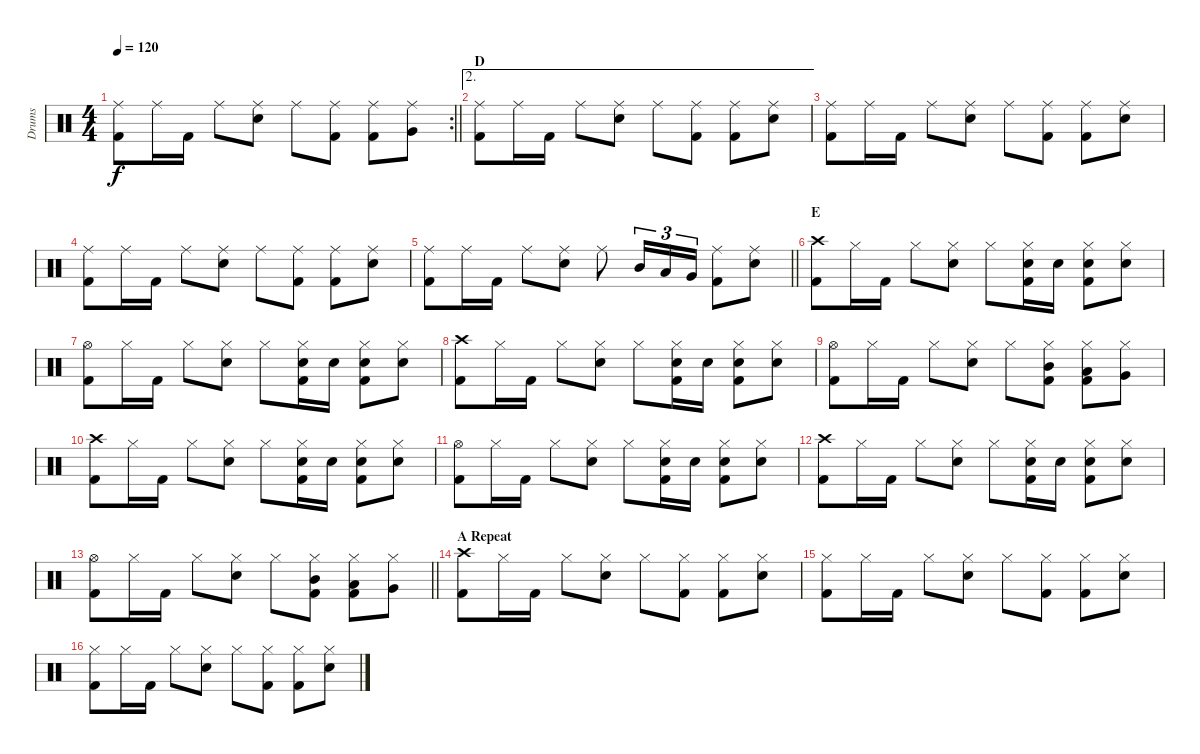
\track ("Drums" "Drums") {instrument percussion}
\staff {score}
\articulation defaults
\rc 2
\ts (4 4)
\tempo 120
\clef neutral
\barLineRight lightlight
\ks c
("Ride (middle)" "Kick (hit) 2").8{dy f} "Ride (middle)".16 "Kick (hit) 2".16 "Ride (middle)".8 ("Ride (middle)" "Snare (hit) 2").8 "Ride (middle)".8 ("Ride (middle)" "Kick (hit) 2").8 ("Ride (middle)" "Kick (hit) 2").8 ("Ride (middle)" "Very Low Tom (hit)").8 |
\ae 2
\section ("" "D")
("Ride (middle)" "Kick (hit) 2").8 "Ride (middle)".16 "Kick (hit) 2".16 "Ride (middle)".8 ("Ride (middle)" "Snare (hit) 2").8 "Ride (middle)".8 ("Ride (middle)" "Kick (hit) 2").8 ("Ride (middle)" "Kick (hit) 2").8 ("Ride (middle)" "Snare (hit) 2").8 |
("Ride (middle)" "Kick (hit) 2").8 "Ride (middle)".16 "Kick (hit) 2".16 "Ride (middle)".8 ("Ride (middle)" "Snare (hit) 2").8 "Ride (middle)".8 ("Ride (middle)" "Kick (hit) 2").8 ("Ride (middle)" "Kick (hit) 2").8 ("Ride (middle)" "Snare (hit) 2").8 |
("Ride (middle)" "Kick (hit) 2").8 "Ride (middle)".16 "Kick (hit) 2".16 "Ride (middle)".8 ("Ride (middle)" "Snare (hit) 2").8 "Ride (middle)".8 ("Ride (middle)" "Kick (hit) 2").8 ("Ride (middle)" "Kick (hit) 2").8 ("Ride (middle)" "Snare (hit) 2").8 |
\barLineRight lightlight
("Ride (middle)" "Kick (hit) 2").8 "Ride (middle)".16 "Kick (hit) 2".16 "Ride (middle)".8 ("Ride (middle)" "Snare (hit) 2").8 "Ride (middle)".8 "Mid Tom (hit)".16{tu (3 2)} "Low Tom (hit)".16{tu (3 2)} "Very Low Tom (hit)".16{tu (3 2)} ("Ride (middle)" "Kick (hit) 2").8 ("Ride (middle)" "Snare (hit) 2").8 |
\section ("" "E")
("Crash high (hit)" "Kick (hit) 2").8 "Hi-Hat (closed)".16 "Kick (hit) 2".16 "Hi-Hat (closed)".8 ("Hi-Hat (closed)" "Snare (hit) 2").8 "Hi-Hat (closed)".8 ("Hi-Hat (closed)" "Snare (hit) 2" "Kick (hit) 2").16 "Snare (hit) 2".16 ("Hi-Hat (closed)" "Snare (hit) 2" "Kick (hit) 2").8 ("Hi-Hat (closed)" "Snare (hit) 2").8 |
("Hi-Hat (open)" "Kick (hit) 2").8 "Hi-Hat (closed)".16 "Kick (hit) 2".16 "Hi-Hat (closed)".8 ("Hi-Hat (closed)" "Snare (hit) 2").8 "Hi-Hat (closed)".8 ("Hi-Hat (closed)" "Snare (hit) 2" "Kick (hit) 2").16 "Snare (hit) 2".16 ("Hi-Hat (closed)" "Snare (hit) 2" "Kick (hit) 2").8 ("Hi-Hat (closed)" "Snare (hit) 2").8 |
("Crash high (hit)" "Kick (hit) 2").8 "Hi-Hat (closed)".16 "Kick (hit) 2".16 "Hi-Hat (closed)".8 ("Hi-Hat (closed)" "Snare (hit) 2").8 "Hi-Hat (closed)".8 ("Hi-Hat (closed)" "Snare (hit) 2" "Kick (hit) 2").16 "Snare (hit) 2".16 ("Hi-Hat (closed)" "Snare (hit) 2" "Kick (hit) 2").8 ("Hi-Hat (closed)" "Snare (hit) 2").8 |
("Hi-Hat (open)" "Kick (hit) 2").8 "Hi-Hat (closed)".16 "Kick (hit) 2".16 "Hi-Hat (closed)".8 ("Hi-Hat (closed)" "Snare (hit) 2").8 "Hi-Hat (closed)".8 ("Hi-Hat (closed)" "Mid Tom (hit)" "Kick (hit) 2").8 ("Hi-Hat (closed)" "Low Tom (hit)" "Kick (hit) 2").8 ("Hi-Hat (closed)" "Very Low Tom (hit)").8 |
("Crash high (hit)" "Kick (hit) 2").8 "Hi-Hat (closed)".16 "Kick (hit) 2".16 "Hi-Hat (closed)".8 ("Hi-Hat (closed)" "Snare (hit) 2").8 "Hi-Hat (closed)".8 ("Hi-Hat (closed)" "Snare (hit) 2" "Kick (hit) 2").16 "Snare (hit) 2".16 ("Hi-Hat (closed)" "Snare (hit) 2" "Kick (hit) 2").8 ("Hi-Hat (closed)" "Snare (hit) 2").8 |
("Hi-Hat (open)" "Kick (hit) 2").8 "Hi-Hat (closed)".16 "Kick (hit) 2".16 "Hi-Hat (closed)".8 ("Hi-Hat (closed)" "Snare (hit) 2").8 "Hi-Hat (closed)".8 ("Hi-Hat (closed)" "Snare (hit) 2" "Kick (hit) 2").16 "Snare (hit) 2".16 ("Hi-Hat (closed)" "Snare (hit) 2" "Kick (hit) 2").8 ("Hi-Hat (closed)" "Snare (hit) 2").8 |
("Crash high (hit)" "Kick (hit) 2").8 "Hi-Hat (closed)".16 "Kick (hit) 2".16 "Hi-Hat (closed)".8 ("Hi-Hat (closed)" "Snare (hit) 2").8 "Hi-Hat (closed)".8 ("Hi-Hat (closed)" "Snare (hit) 2" "Kick (hit) 2").16 "Snare (hit) 2".16 ("Hi-Hat (closed)" "Snare (hit) 2" "Kick (hit) 2").8 ("Hi-Hat (closed)" "Snare (hit) 2").8 |
\barLineRight lightlight
("Hi-Hat (open)" "Kick (hit) 2").8 "Hi-Hat (closed)".16 "Kick (hit) 2".16 "Hi-Hat (closed)".8 ("Hi-Hat (closed)" "Snare (hit) 2").8 "Hi-Hat (closed)".8 ("Hi-Hat (closed)" "Mid Tom (hit)" "Kick (hit) 2").8 ("Hi-Hat (closed)" "Low Tom (hit)" "Kick (hit) 2").8 ("Hi-Hat (closed)" "Very Low Tom (hit)").8 |
\section ("" "A Repeat")
("Crash high (hit)" "Kick (hit) 2").8 "Hi-Hat (closed)".16 "Kick (hit) 2".16 "Hi-Hat (closed)".8 ("Hi-Hat (closed)" "Snare (hit) 2").8 "Hi-Hat (closed)".8 ("Hi-Hat (closed)" "Kick (hit) 2").8 ("Hi-Hat (closed)" "Kick (hit) 2").8 ("Hi-Hat (closed)" "Snare (hit) 2").8 |
("Hi-Hat (closed)" "Kick (hit) 2").8 "Hi-Hat (closed)".16 "Kick (hit) 2".16 "Hi-Hat (closed)".8 ("Hi-Hat (closed)" "Snare (hit) 2").8 "Hi-Hat (closed)".8 ("Hi-Hat (closed)" "Kick (hit) 2").8 ("Hi-Hat (closed)" "Kick (hit) 2").8 ("Hi-Hat (closed)" "Snare (hit) 2").8 |
("Hi-Hat (closed)" "Kick (hit) 2").8 "Hi-Hat (closed)".16 "Kick (hit) 2".16 "Hi-Hat (closed)".8 ("Hi-Hat (closed)" "Snare (hit) 2").8 "Hi-Hat (closed)".8 ("Hi-Hat (closed)" "Kick (hit) 2").8 ("Hi-Hat (closed)" "Kick (hit) 2").8 ("Hi-Hat (closed)" "Snare (hit) 2").8
